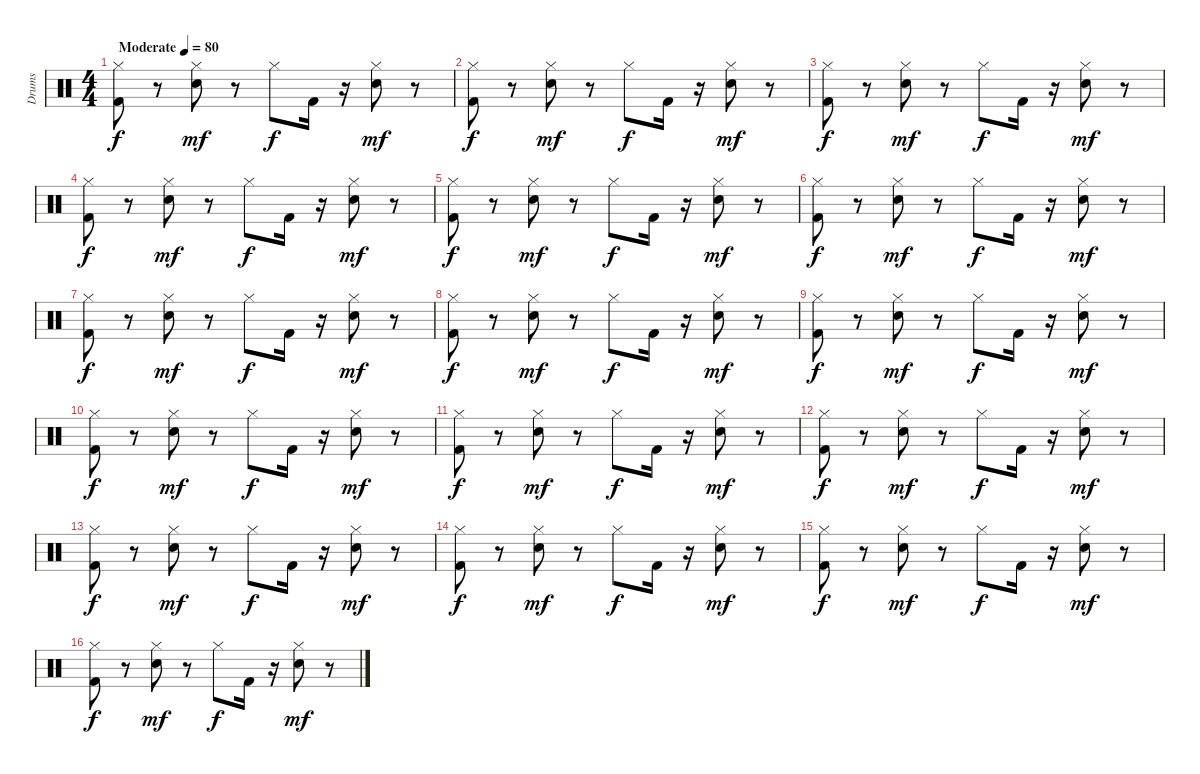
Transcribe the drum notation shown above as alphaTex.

\track ("Drums" "Drums") {instrument percussion}
\staff {score}
\articulation defaults
\ts (4 4)
\tempo (80 "Moderate")
\clef neutral
\ks c
("Hi-Hat (closed)" "Kick (hit) 2").8{dy f} r.8 ("Hi-Hat (closed)" "Electric Snare (hit)").8{dy mf} r.8 "Hi-Hat (closed)".8{dy f} "Kick (hit) 2".16 r.16 ("Hi-Hat (closed)" "Electric Snare (hit)").8{dy mf} r.8 |
("Kick (hit) 2" "Hi-Hat (closed)").8{dy f} r.8 ("Hi-Hat (closed)" "Electric Snare (hit)").8{dy mf} r.8 "Hi-Hat (closed)".8{dy f} "Kick (hit) 2".16 r.16 ("Hi-Hat (closed)" "Electric Snare (hit)").8{dy mf} r.8 |
("Hi-Hat (closed)" "Kick (hit) 2").8{dy f} r.8 ("Hi-Hat (closed)" "Electric Snare (hit)").8{dy mf} r.8 "Hi-Hat (closed)".8{dy f} "Kick (hit) 2".16 r.16 ("Hi-Hat (closed)" "Electric Snare (hit)").8{dy mf} r.8 |
("Kick (hit) 2" "Hi-Hat (closed)").8{dy f} r.8 ("Hi-Hat (closed)" "Electric Snare (hit)").8{dy mf} r.8 "Hi-Hat (closed)".8{dy f} "Kick (hit) 2".16 r.16 ("Hi-Hat (closed)" "Electric Snare (hit)").8{dy mf} r.8 |
("Hi-Hat (closed)" "Kick (hit) 2").8{dy f} r.8 ("Hi-Hat (closed)" "Electric Snare (hit)").8{dy mf} r.8 "Hi-Hat (closed)".8{dy f} "Kick (hit) 2".16 r.16 ("Hi-Hat (closed)" "Electric Snare (hit)").8{dy mf} r.8 |
("Kick (hit) 2" "Hi-Hat (closed)").8{dy f} r.8 ("Hi-Hat (closed)" "Electric Snare (hit)").8{dy mf} r.8 "Hi-Hat (closed)".8{dy f} "Kick (hit) 2".16 r.16 ("Hi-Hat (closed)" "Electric Snare (hit)").8{dy mf} r.8 |
("Hi-Hat (closed)" "Kick (hit) 2").8{dy f} r.8 ("Hi-Hat (closed)" "Electric Snare (hit)").8{dy mf} r.8 "Hi-Hat (closed)".8{dy f} "Kick (hit) 2".16 r.16 ("Hi-Hat (closed)" "Electric Snare (hit)").8{dy mf} r.8 |
("Kick (hit) 2" "Hi-Hat (closed)").8{dy f} r.8 ("Hi-Hat (closed)" "Electric Snare (hit)").8{dy mf} r.8 "Hi-Hat (closed)".8{dy f} "Kick (hit) 2".16 r.16 ("Hi-Hat (closed)" "Electric Snare (hit)").8{dy mf} r.8 |
("Hi-Hat (closed)" "Kick (hit) 2").8{dy f} r.8 ("Hi-Hat (closed)" "Electric Snare (hit)").8{dy mf} r.8 "Hi-Hat (closed)".8{dy f} "Kick (hit) 2".16 r.16 ("Hi-Hat (closed)" "Electric Snare (hit)").8{dy mf} r.8 |
("Kick (hit) 2" "Hi-Hat (closed)").8{dy f} r.8 ("Hi-Hat (closed)" "Electric Snare (hit)").8{dy mf} r.8 "Hi-Hat (closed)".8{dy f} "Kick (hit) 2".16 r.16 ("Hi-Hat (closed)" "Electric Snare (hit)").8{dy mf} r.8 |
("Hi-Hat (closed)" "Kick (hit) 2").8{dy f} r.8 ("Hi-Hat (closed)" "Electric Snare (hit)").8{dy mf} r.8 "Hi-Hat (closed)".8{dy f} "Kick (hit) 2".16 r.16 ("Hi-Hat (closed)" "Electric Snare (hit)").8{dy mf} r.8 |
("Kick (hit) 2" "Hi-Hat (closed)").8{dy f} r.8 ("Hi-Hat (closed)" "Electric Snare (hit)").8{dy mf} r.8 "Hi-Hat (closed)".8{dy f} "Kick (hit) 2".16 r.16 ("Hi-Hat (closed)" "Electric Snare (hit)").8{dy mf} r.8 |
("Hi-Hat (closed)" "Kick (hit) 2").8{dy f} r.8 ("Hi-Hat (closed)" "Electric Snare (hit)").8{dy mf} r.8 "Hi-Hat (closed)".8{dy f} "Kick (hit) 2".16 r.16 ("Hi-Hat (closed)" "Electric Snare (hit)").8{dy mf} r.8 |
("Kick (hit) 2" "Hi-Hat (closed)").8{dy f} r.8 ("Hi-Hat (closed)" "Electric Snare (hit)").8{dy mf} r.8 "Hi-Hat (closed)".8{dy f} "Kick (hit) 2".16 r.16 ("Hi-Hat (closed)" "Electric Snare (hit)").8{dy mf} r.8 |
("Hi-Hat (closed)" "Kick (hit) 2").8{dy f} r.8 ("Hi-Hat (closed)" "Electric Snare (hit)").8{dy mf} r.8 "Hi-Hat (closed)".8{dy f} "Kick (hit) 2".16 r.16 ("Hi-Hat (closed)" "Electric Snare (hit)").8{dy mf} r.8 |
("Kick (hit) 2" "Hi-Hat (closed)").8{dy f} r.8 ("Hi-Hat (closed)" "Electric Snare (hit)").8{dy mf} r.8 "Hi-Hat (closed)".8{dy f} "Kick (hit) 2".16 r.16 ("Hi-Hat (closed)" "Electric Snare (hit)").8{dy mf} r.8
